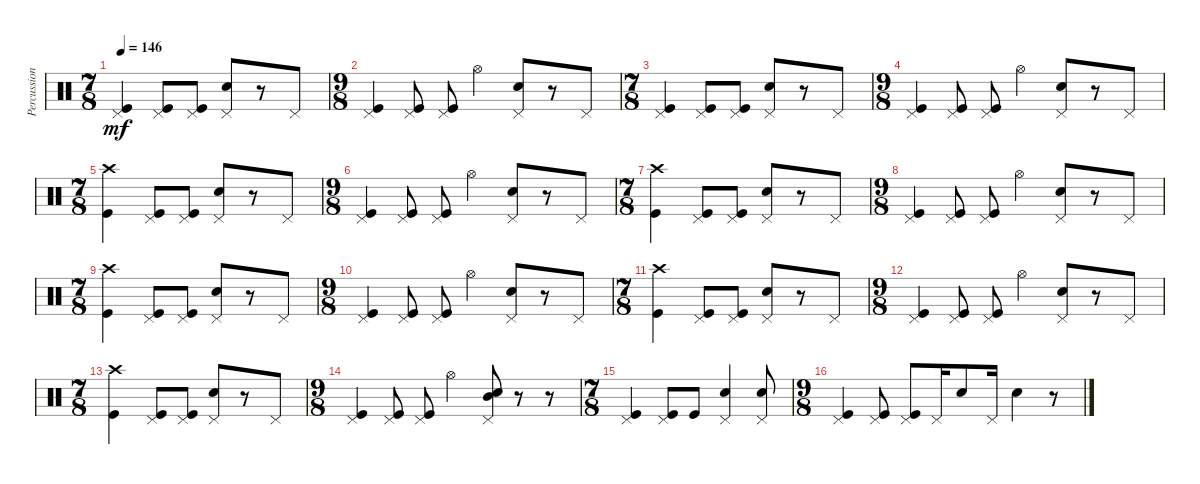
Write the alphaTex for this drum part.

\track ("Percussion" "Percussion") {instrument percussion}
\staff {score}
\articulation defaults
\ts (7 8)
\tempo 146
\clef neutral
\ks c
("Pedal Hi-Hat (hit)" "Kick (hit)").4{dy mf} ("Pedal Hi-Hat (hit)" "Kick (hit)").8 ("Pedal Hi-Hat (hit)" "Kick (hit)").8 ("Pedal Hi-Hat (hit)" "Snare (hit) 2").8 r.8 "Pedal Hi-Hat (hit)".8 |
\ts (9 8)
("Pedal Hi-Hat (hit)" "Kick (hit)").4 ("Pedal Hi-Hat (hit)" "Kick (hit)").8 ("Pedal Hi-Hat (hit)" "Kick (hit)").8 "Hi-Hat (open)".4 ("Pedal Hi-Hat (hit)" "Snare (hit) 2").8 r.8 "Pedal Hi-Hat (hit)".8 |
\ts (7 8)
("Pedal Hi-Hat (hit)" "Kick (hit)").4 ("Pedal Hi-Hat (hit)" "Kick (hit)").8 ("Pedal Hi-Hat (hit)" "Kick (hit)").8 ("Pedal Hi-Hat (hit)" "Snare (hit) 2").8 r.8 "Pedal Hi-Hat (hit)".8 |
\ts (9 8)
("Pedal Hi-Hat (hit)" "Kick (hit)").4 ("Pedal Hi-Hat (hit)" "Kick (hit)").8 ("Pedal Hi-Hat (hit)" "Kick (hit)").8 "Hi-Hat (open)".4 ("Pedal Hi-Hat (hit)" "Snare (hit) 2").8 r.8 "Pedal Hi-Hat (hit)".8 |
\ts (7 8)
("Crash high (hit)" "Kick (hit)").4 ("Pedal Hi-Hat (hit)" "Kick (hit)").8 ("Pedal Hi-Hat (hit)" "Kick (hit)").8 ("Pedal Hi-Hat (hit)" "Snare (hit) 2").8 r.8 "Pedal Hi-Hat (hit)".8 |
\ts (9 8)
("Pedal Hi-Hat (hit)" "Kick (hit)").4 ("Pedal Hi-Hat (hit)" "Kick (hit)").8 ("Pedal Hi-Hat (hit)" "Kick (hit)").8 "Hi-Hat (open)".4 ("Pedal Hi-Hat (hit)" "Snare (hit) 2").8 r.8 "Pedal Hi-Hat (hit)".8 |
\ts (7 8)
("Crash high (hit)" "Kick (hit)").4 ("Pedal Hi-Hat (hit)" "Kick (hit)").8 ("Pedal Hi-Hat (hit)" "Kick (hit)").8 ("Pedal Hi-Hat (hit)" "Snare (hit) 2").8 r.8 "Pedal Hi-Hat (hit)".8 |
\ts (9 8)
("Pedal Hi-Hat (hit)" "Kick (hit)").4 ("Pedal Hi-Hat (hit)" "Kick (hit)").8 ("Pedal Hi-Hat (hit)" "Kick (hit)").8 "Hi-Hat (open)".4 ("Pedal Hi-Hat (hit)" "Snare (hit) 2").8 r.8 "Pedal Hi-Hat (hit)".8 |
\ts (7 8)
("Crash high (hit)" "Kick (hit)").4 ("Pedal Hi-Hat (hit)" "Kick (hit)").8 ("Pedal Hi-Hat (hit)" "Kick (hit)").8 ("Pedal Hi-Hat (hit)" "Snare (hit) 2").8 r.8 "Pedal Hi-Hat (hit)".8 |
\ts (9 8)
("Pedal Hi-Hat (hit)" "Kick (hit)").4 ("Pedal Hi-Hat (hit)" "Kick (hit)").8 ("Pedal Hi-Hat (hit)" "Kick (hit)").8 "Hi-Hat (open)".4 ("Pedal Hi-Hat (hit)" "Snare (hit) 2").8 r.8 "Pedal Hi-Hat (hit)".8 |
\ts (7 8)
("Crash high (hit)" "Kick (hit)").4 ("Pedal Hi-Hat (hit)" "Kick (hit)").8 ("Pedal Hi-Hat (hit)" "Kick (hit)").8 ("Pedal Hi-Hat (hit)" "Snare (hit) 2").8 r.8 "Pedal Hi-Hat (hit)".8 |
\ts (9 8)
("Pedal Hi-Hat (hit)" "Kick (hit)").4 ("Pedal Hi-Hat (hit)" "Kick (hit)").8 ("Pedal Hi-Hat (hit)" "Kick (hit)").8 "Hi-Hat (open)".4 ("Pedal Hi-Hat (hit)" "Snare (hit) 2").8 r.8 "Pedal Hi-Hat (hit)".8 |
\ts (7 8)
("Crash high (hit)" "Kick (hit)").4 ("Pedal Hi-Hat (hit)" "Kick (hit)").8 ("Pedal Hi-Hat (hit)" "Kick (hit)").8 ("Pedal Hi-Hat (hit)" "Snare (hit) 2").8 r.8 "Pedal Hi-Hat (hit)".8 |
\ts (9 8)
("Pedal Hi-Hat (hit)" "Kick (hit)").4 ("Pedal Hi-Hat (hit)" "Kick (hit)").8 ("Pedal Hi-Hat (hit)" "Kick (hit)").8 "Hi-Hat (open)".4 ("Pedal Hi-Hat (hit)" "Mid Tom (hit)" "Snare (hit) 2").8 r.8 r.8 |
\ts (7 8)
("Pedal Hi-Hat (hit)" "Kick (hit)").4 ("Pedal Hi-Hat (hit)" "Kick (hit)").8 "Kick (hit)".8 ("Pedal Hi-Hat (hit)" "Snare (hit) 2").4 ("Pedal Hi-Hat (hit)" "Snare (hit) 2").8 |
\ts (9 8)
("Pedal Hi-Hat (hit)" "Kick (hit)").4 ("Pedal Hi-Hat (hit)" "Kick (hit)").8 ("Pedal Hi-Hat (hit)" "Kick (hit)").8 "Pedal Hi-Hat (hit)".16 "Snare (hit) 2".8 "Pedal Hi-Hat (hit)".16 "Snare (hit) 2".4 r.8
